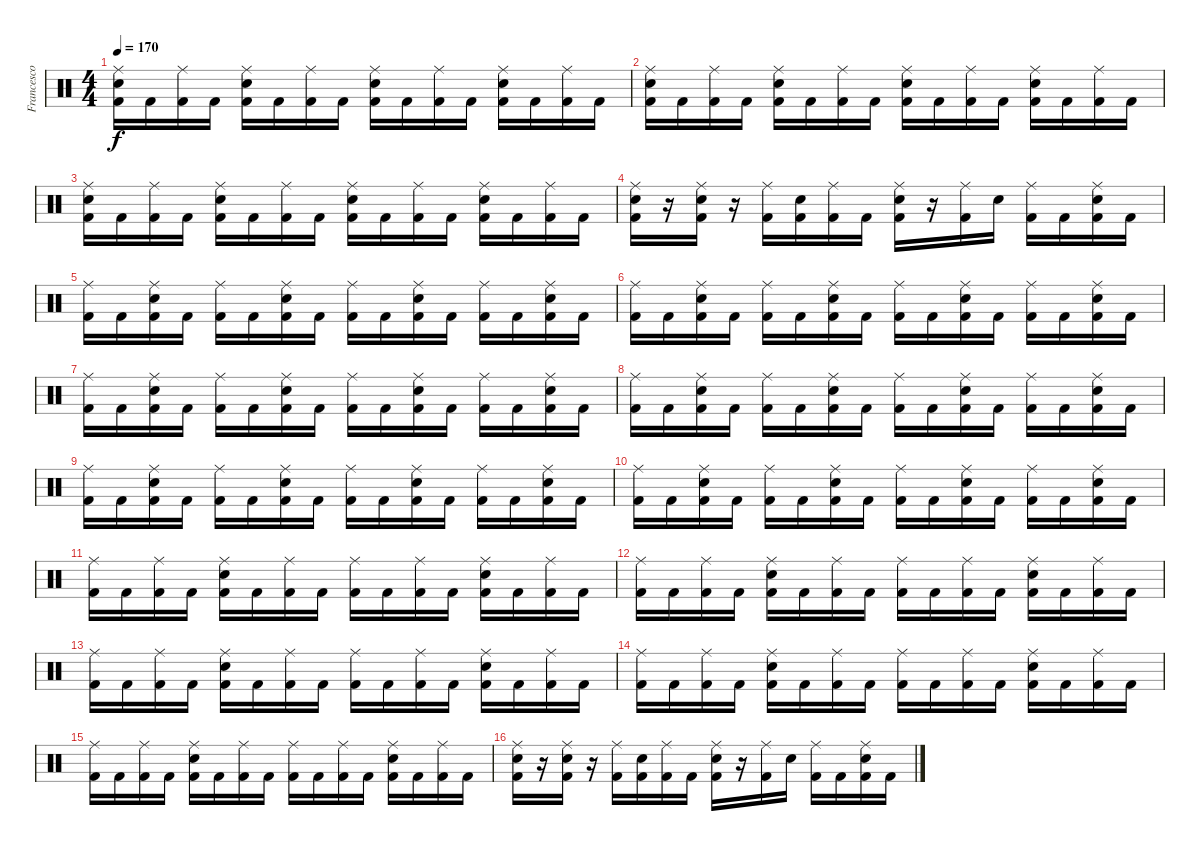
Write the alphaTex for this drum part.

\track ("Francesco Tresa" "Francesco ") {instrument percussion}
\staff {score}
\articulation defaults
\ts (4 4)
\tempo 170
\clef neutral
\ks c
("Ride (middle)" "Kick (hit) 2" "Electric Snare (hit)").16{dy f} "Kick (hit) 2".16 ("Ride (middle)" "Kick (hit) 2").16 "Kick (hit) 2".16 ("Ride (middle)" "Kick (hit) 2" "Electric Snare (hit)").16 "Kick (hit) 2".16 ("Ride (middle)" "Kick (hit) 2").16 "Kick (hit) 2".16 ("Ride (middle)" "Kick (hit) 2" "Electric Snare (hit)").16 "Kick (hit) 2".16 ("Ride (middle)" "Kick (hit) 2").16 "Kick (hit) 2".16 ("Ride (middle)" "Kick (hit) 2" "Electric Snare (hit)").16 "Kick (hit) 2".16 ("Ride (middle)" "Kick (hit) 2").16 "Kick (hit) 2".16 |
("Ride (middle)" "Kick (hit) 2" "Electric Snare (hit)").16 "Kick (hit) 2".16 ("Ride (middle)" "Kick (hit) 2").16 "Kick (hit) 2".16 ("Ride (middle)" "Kick (hit) 2" "Electric Snare (hit)").16 "Kick (hit) 2".16 ("Ride (middle)" "Kick (hit) 2").16 "Kick (hit) 2".16 ("Ride (middle)" "Kick (hit) 2" "Electric Snare (hit)").16 "Kick (hit) 2".16 ("Ride (middle)" "Kick (hit) 2").16 "Kick (hit) 2".16 ("Ride (middle)" "Kick (hit) 2" "Electric Snare (hit)").16 "Kick (hit) 2".16 ("Ride (middle)" "Kick (hit) 2").16 "Kick (hit) 2".16 |
("Ride (middle)" "Kick (hit) 2" "Electric Snare (hit)").16 "Kick (hit) 2".16 ("Ride (middle)" "Kick (hit) 2").16 "Kick (hit) 2".16 ("Ride (middle)" "Kick (hit) 2" "Electric Snare (hit)").16 "Kick (hit) 2".16 ("Ride (middle)" "Kick (hit) 2").16 "Kick (hit) 2".16 ("Ride (middle)" "Kick (hit) 2" "Electric Snare (hit)").16 "Kick (hit) 2".16 ("Ride (middle)" "Kick (hit) 2").16 "Kick (hit) 2".16 ("Ride (middle)" "Kick (hit) 2" "Electric Snare (hit)").16 "Kick (hit) 2".16 ("Ride (middle)" "Kick (hit) 2").16 "Kick (hit) 2".16 |
("Ride (middle)" "Kick (hit) 2" "Electric Snare (hit)").16 r.16 ("Ride (middle)" "Kick (hit) 2" "Electric Snare (hit)").16 r.16 ("Ride (middle)" "Kick (hit) 2").16 ("Kick (hit) 2" "Electric Snare (hit)").16 ("Ride (middle)" "Kick (hit) 2").16 "Kick (hit) 2".16 ("Ride (middle)" "Kick (hit) 2" "Electric Snare (hit)").16 r.16 ("Ride (middle)" "Kick (hit) 2").16 "Electric Snare (hit)".16 ("Ride (middle)" "Kick (hit) 2").16 "Kick (hit) 2".16 ("Ride (middle)" "Kick (hit) 2" "Electric Snare (hit)").16 "Kick (hit) 2".16 |
("Ride (middle)" "Kick (hit) 2").16 "Kick (hit) 2".16 ("Ride (middle)" "Kick (hit) 2" "Electric Snare (hit)").16 "Kick (hit) 2".16 ("Ride (middle)" "Kick (hit) 2").16 "Kick (hit) 2".16 ("Ride (middle)" "Kick (hit) 2" "Electric Snare (hit)").16 "Kick (hit) 2".16 ("Ride (middle)" "Kick (hit) 2").16 "Kick (hit) 2".16 ("Ride (middle)" "Kick (hit) 2" "Electric Snare (hit)").16 "Kick (hit) 2".16 ("Ride (middle)" "Kick (hit) 2").16 "Kick (hit) 2".16 ("Ride (middle)" "Kick (hit) 2" "Electric Snare (hit)").16 "Kick (hit) 2".16 |
("Ride (middle)" "Kick (hit) 2").16 "Kick (hit) 2".16 ("Ride (middle)" "Kick (hit) 2" "Electric Snare (hit)").16 "Kick (hit) 2".16 ("Ride (middle)" "Kick (hit) 2").16 "Kick (hit) 2".16 ("Ride (middle)" "Kick (hit) 2" "Electric Snare (hit)").16 "Kick (hit) 2".16 ("Ride (middle)" "Kick (hit) 2").16 "Kick (hit) 2".16 ("Ride (middle)" "Kick (hit) 2" "Electric Snare (hit)").16 "Kick (hit) 2".16 ("Ride (middle)" "Kick (hit) 2").16 "Kick (hit) 2".16 ("Ride (middle)" "Kick (hit) 2" "Electric Snare (hit)").16 "Kick (hit) 2".16 |
("Ride (middle)" "Kick (hit) 2").16 "Kick (hit) 2".16 ("Ride (middle)" "Kick (hit) 2" "Electric Snare (hit)").16 "Kick (hit) 2".16 ("Ride (middle)" "Kick (hit) 2").16 "Kick (hit) 2".16 ("Ride (middle)" "Kick (hit) 2" "Electric Snare (hit)").16 "Kick (hit) 2".16 ("Ride (middle)" "Kick (hit) 2").16 "Kick (hit) 2".16 ("Ride (middle)" "Kick (hit) 2" "Electric Snare (hit)").16 "Kick (hit) 2".16 ("Ride (middle)" "Kick (hit) 2").16 "Kick (hit) 2".16 ("Ride (middle)" "Kick (hit) 2" "Electric Snare (hit)").16 "Kick (hit) 2".16 |
("Ride (middle)" "Kick (hit) 2").16 "Kick (hit) 2".16 ("Ride (middle)" "Kick (hit) 2" "Electric Snare (hit)").16 "Kick (hit) 2".16 ("Ride (middle)" "Kick (hit) 2").16 "Kick (hit) 2".16 ("Ride (middle)" "Kick (hit) 2" "Electric Snare (hit)").16 "Kick (hit) 2".16 ("Ride (middle)" "Kick (hit) 2").16 "Kick (hit) 2".16 ("Ride (middle)" "Kick (hit) 2" "Electric Snare (hit)").16 "Kick (hit) 2".16 ("Ride (middle)" "Kick (hit) 2").16 "Kick (hit) 2".16 ("Ride (middle)" "Kick (hit) 2" "Electric Snare (hit)").16 "Kick (hit) 2".16 |
("Ride (middle)" "Kick (hit) 2").16 "Kick (hit) 2".16 ("Ride (middle)" "Kick (hit) 2" "Electric Snare (hit)").16 "Kick (hit) 2".16 ("Ride (middle)" "Kick (hit) 2").16 "Kick (hit) 2".16 ("Ride (middle)" "Kick (hit) 2" "Electric Snare (hit)").16 "Kick (hit) 2".16 ("Ride (middle)" "Kick (hit) 2").16 "Kick (hit) 2".16 ("Ride (middle)" "Kick (hit) 2" "Electric Snare (hit)").16 "Kick (hit) 2".16 ("Ride (middle)" "Kick (hit) 2").16 "Kick (hit) 2".16 ("Ride (middle)" "Kick (hit) 2" "Electric Snare (hit)").16 "Kick (hit) 2".16 |
("Ride (middle)" "Kick (hit) 2").16 "Kick (hit) 2".16 ("Ride (middle)" "Kick (hit) 2" "Electric Snare (hit)").16 "Kick (hit) 2".16 ("Ride (middle)" "Kick (hit) 2").16 "Kick (hit) 2".16 ("Ride (middle)" "Kick (hit) 2" "Electric Snare (hit)").16 "Kick (hit) 2".16 ("Ride (middle)" "Kick (hit) 2").16 "Kick (hit) 2".16 ("Ride (middle)" "Kick (hit) 2" "Electric Snare (hit)").16 "Kick (hit) 2".16 ("Ride (middle)" "Kick (hit) 2").16 "Kick (hit) 2".16 ("Ride (middle)" "Kick (hit) 2" "Electric Snare (hit)").16 "Kick (hit) 2".16 |
("Ride (middle)" "Kick (hit) 2").16 "Kick (hit) 2".16 ("Ride (middle)" "Kick (hit) 2").16 "Kick (hit) 2".16 ("Ride (middle)" "Kick (hit) 2" "Electric Snare (hit)").16 "Kick (hit) 2".16 ("Ride (middle)" "Kick (hit) 2").16 "Kick (hit) 2".16 ("Ride (middle)" "Kick (hit) 2").16 "Kick (hit) 2".16 ("Ride (middle)" "Kick (hit) 2").16 "Kick (hit) 2".16 ("Ride (middle)" "Kick (hit) 2" "Electric Snare (hit)").16 "Kick (hit) 2".16 ("Ride (middle)" "Kick (hit) 2").16 "Kick (hit) 2".16 |
("Ride (middle)" "Kick (hit) 2").16 "Kick (hit) 2".16 ("Ride (middle)" "Kick (hit) 2").16 "Kick (hit) 2".16 ("Ride (middle)" "Kick (hit) 2" "Electric Snare (hit)").16 "Kick (hit) 2".16 ("Ride (middle)" "Kick (hit) 2").16 "Kick (hit) 2".16 ("Ride (middle)" "Kick (hit) 2").16 "Kick (hit) 2".16 ("Ride (middle)" "Kick (hit) 2").16 "Kick (hit) 2".16 ("Ride (middle)" "Kick (hit) 2" "Electric Snare (hit)").16 "Kick (hit) 2".16 ("Ride (middle)" "Kick (hit) 2").16 "Kick (hit) 2".16 |
("Ride (middle)" "Kick (hit) 2").16 "Kick (hit) 2".16 ("Ride (middle)" "Kick (hit) 2").16 "Kick (hit) 2".16 ("Ride (middle)" "Kick (hit) 2" "Electric Snare (hit)").16 "Kick (hit) 2".16 ("Ride (middle)" "Kick (hit) 2").16 "Kick (hit) 2".16 ("Ride (middle)" "Kick (hit) 2").16 "Kick (hit) 2".16 ("Ride (middle)" "Kick (hit) 2").16 "Kick (hit) 2".16 ("Ride (middle)" "Kick (hit) 2" "Electric Snare (hit)").16 "Kick (hit) 2".16 ("Ride (middle)" "Kick (hit) 2").16 "Kick (hit) 2".16 |
("Ride (middle)" "Kick (hit) 2").16 "Kick (hit) 2".16 ("Ride (middle)" "Kick (hit) 2").16 "Kick (hit) 2".16 ("Ride (middle)" "Kick (hit) 2" "Electric Snare (hit)").16 "Kick (hit) 2".16 ("Ride (middle)" "Kick (hit) 2").16 "Kick (hit) 2".16 ("Ride (middle)" "Kick (hit) 2").16 "Kick (hit) 2".16 ("Ride (middle)" "Kick (hit) 2").16 "Kick (hit) 2".16 ("Ride (middle)" "Kick (hit) 2" "Electric Snare (hit)").16 "Kick (hit) 2".16 ("Ride (middle)" "Kick (hit) 2").16 "Kick (hit) 2".16 |
("Ride (middle)" "Kick (hit) 2").16 "Kick (hit) 2".16 ("Ride (middle)" "Kick (hit) 2").16 "Kick (hit) 2".16 ("Ride (middle)" "Kick (hit) 2" "Electric Snare (hit)").16 "Kick (hit) 2".16 ("Ride (middle)" "Kick (hit) 2").16 "Kick (hit) 2".16 ("Ride (middle)" "Kick (hit) 2").16 "Kick (hit) 2".16 ("Ride (middle)" "Kick (hit) 2").16 "Kick (hit) 2".16 ("Ride (middle)" "Kick (hit) 2" "Electric Snare (hit)").16 "Kick (hit) 2".16 ("Ride (middle)" "Kick (hit) 2").16 "Kick (hit) 2".16 |
("Ride (middle)" "Kick (hit) 2" "Electric Snare (hit)").16 r.16 ("Ride (middle)" "Kick (hit) 2" "Electric Snare (hit)").16 r.16 ("Ride (middle)" "Kick (hit) 2").16 ("Kick (hit) 2" "Electric Snare (hit)").16 ("Ride (middle)" "Kick (hit) 2").16 "Kick (hit) 2".16 ("Ride (middle)" "Kick (hit) 2" "Electric Snare (hit)").16 r.16 ("Ride (middle)" "Kick (hit) 2").16 "Electric Snare (hit)".16 ("Ride (middle)" "Kick (hit) 2").16 "Kick (hit) 2".16 ("Ride (middle)" "Kick (hit) 2" "Electric Snare (hit)").16 "Kick (hit) 2".16
